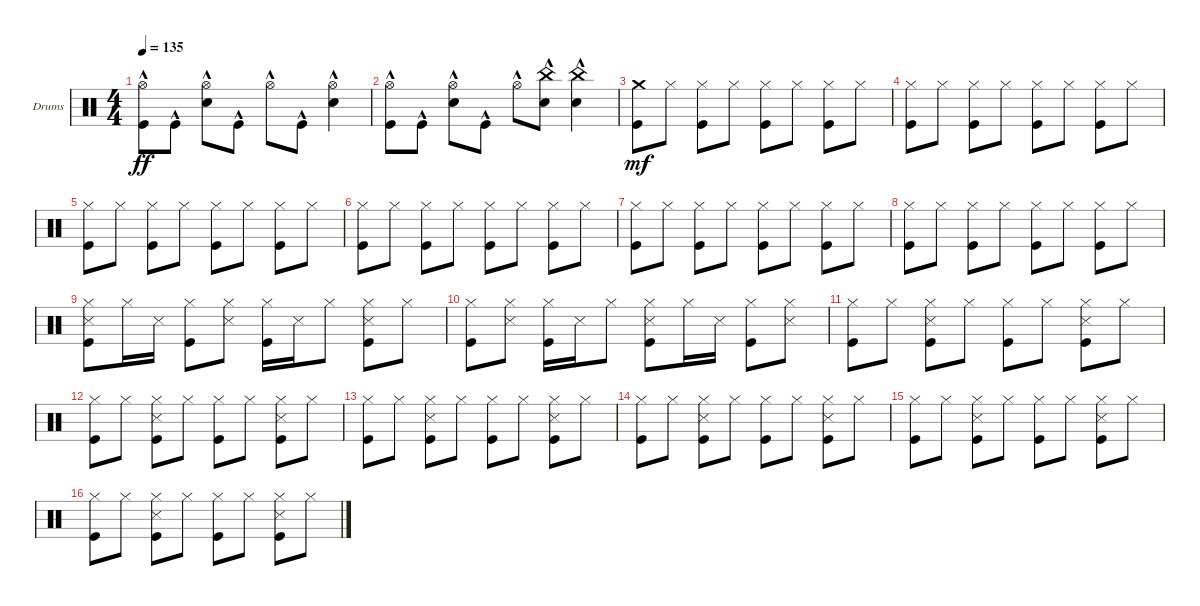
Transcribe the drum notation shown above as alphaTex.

\defaultSystemsLayout 4
\bracketExtendMode groupsimilarinstruments
\firstSystemTrackNameOrientation horizontal
\otherSystemsTrackNameOrientation horizontal
\track ("Drumkit" "Drums") {instrument percussion}
\staff {score}
\articulation defaults
\ts (4 4)
\tempo 135
\clef neutral
\ks c
("Kick (hit)"{hac} "Hi-Hat (open)"{hac}).8{dy ff} "Kick (hit)"{hac}.8 ("Snare (hit) 2"{hac} "Hi-Hat (open)"{hac}).8 "Kick (hit)"{hac}.8 "Hi-Hat (open)"{hac}.8 "Kick (hit)"{hac}.8 ("Snare (hit) 2"{hac} "Hi-Hat (open)"{hac}).4 |
("Kick (hit)"{hac} "Hi-Hat (open)"{hac}).8 "Kick (hit)"{hac}.8 ("Snare (hit) 2"{hac} "Hi-Hat (open)"{hac}).8 "Kick (hit)"{hac}.8 "Hi-Hat (open)"{hac}.8 ("Snare (hit) 2"{hac} "China (hit)"{hac}).8 ("Snare (hit) 2"{hac} "China (hit)"{hac}).4 |
("Kick (hit)" "Crash medium (hit)").8{dy mf} "Hi-Hat (closed)".8 ("Hi-Hat (closed)" "Kick (hit)").8 "Hi-Hat (closed)".8 ("Hi-Hat (closed)" "Kick (hit)").8 "Hi-Hat (closed)".8 ("Hi-Hat (closed)" "Kick (hit)").8 "Hi-Hat (closed)".8 |
("Hi-Hat (closed)" "Kick (hit)").8 "Hi-Hat (closed)".8 ("Kick (hit)" "Hi-Hat (closed)").8 "Hi-Hat (closed)".8 ("Kick (hit)" "Hi-Hat (closed)").8 "Hi-Hat (closed)".8 ("Kick (hit)" "Hi-Hat (closed)").8 "Hi-Hat (closed)".8 |
("Hi-Hat (closed)" "Kick (hit)").8 "Hi-Hat (closed)".8 ("Kick (hit)" "Hi-Hat (closed)").8 "Hi-Hat (closed)".8 ("Kick (hit)" "Hi-Hat (closed)").8 "Hi-Hat (closed)".8 ("Kick (hit)" "Hi-Hat (closed)").8 "Hi-Hat (closed)".8 |
("Hi-Hat (closed)" "Kick (hit)").8 "Hi-Hat (closed)".8 ("Kick (hit)" "Hi-Hat (closed)").8 "Hi-Hat (closed)".8 ("Kick (hit)" "Hi-Hat (closed)").8 "Hi-Hat (closed)".8 ("Kick (hit)" "Hi-Hat (closed)").8 "Hi-Hat (closed)".8 |
("Hi-Hat (closed)" "Kick (hit)").8 "Hi-Hat (closed)".8 ("Kick (hit)" "Hi-Hat (closed)").8 "Hi-Hat (closed)".8 ("Kick (hit)" "Hi-Hat (closed)").8 "Hi-Hat (closed)".8 ("Kick (hit)" "Hi-Hat (closed)").8 "Hi-Hat (closed)".8 |
("Hi-Hat (closed)" "Kick (hit)").8 "Hi-Hat (closed)".8 ("Kick (hit)" "Hi-Hat (closed)").8 "Hi-Hat (closed)".8 ("Kick (hit)" "Hi-Hat (closed)").8 "Hi-Hat (closed)".8 ("Kick (hit)" "Hi-Hat (closed)").8 "Hi-Hat (closed)".8 |
("Hi-Hat (closed)" "Kick (hit)" "Snare (side stick) 3").8 "Hi-Hat (closed)".16 "Snare (side stick) 3".16 ("Kick (hit)" "Hi-Hat (closed)").8 ("Hi-Hat (closed)" "Snare (side stick) 3").8 ("Kick (hit)" "Hi-Hat (closed)").16 "Snare (side stick) 3".16 "Hi-Hat (closed)".8 ("Kick (hit)" "Hi-Hat (closed)" "Snare (side stick) 3").8 "Hi-Hat (closed)".8 |
("Hi-Hat (closed)" "Kick (hit)").8 ("Hi-Hat (closed)" "Snare (side stick) 3").8 ("Kick (hit)" "Hi-Hat (closed)").16 "Snare (side stick) 3".16 "Hi-Hat (closed)".8 ("Kick (hit)" "Hi-Hat (closed)" "Snare (side stick) 3").8 "Hi-Hat (closed)".16 "Snare (side stick) 3".16 ("Kick (hit)" "Hi-Hat (closed)").8 ("Hi-Hat (closed)" "Snare (side stick) 3").8 |
("Hi-Hat (closed)" "Kick (hit)").8 "Hi-Hat (closed)".8 ("Kick (hit)" "Hi-Hat (closed)" "Snare (side stick) 3").8 "Hi-Hat (closed)".8 ("Kick (hit)" "Hi-Hat (closed)").8 "Hi-Hat (closed)".8 ("Kick (hit)" "Hi-Hat (closed)" "Snare (side stick) 3").8 "Hi-Hat (closed)".8 |
("Hi-Hat (closed)" "Kick (hit)").8 "Hi-Hat (closed)".8 ("Kick (hit)" "Hi-Hat (closed)" "Snare (side stick) 3").8 "Hi-Hat (closed)".8 ("Kick (hit)" "Hi-Hat (closed)").8 "Hi-Hat (closed)".8 ("Kick (hit)" "Hi-Hat (closed)" "Snare (side stick) 3").8 "Hi-Hat (closed)".8 |
("Hi-Hat (closed)" "Kick (hit)").8 "Hi-Hat (closed)".8 ("Kick (hit)" "Hi-Hat (closed)" "Snare (side stick) 3").8 "Hi-Hat (closed)".8 ("Kick (hit)" "Hi-Hat (closed)").8 "Hi-Hat (closed)".8 ("Kick (hit)" "Hi-Hat (closed)" "Snare (side stick) 3").8 "Hi-Hat (closed)".8 |
("Hi-Hat (closed)" "Kick (hit)").8 "Hi-Hat (closed)".8 ("Kick (hit)" "Hi-Hat (closed)" "Snare (side stick) 3").8 "Hi-Hat (closed)".8 ("Kick (hit)" "Hi-Hat (closed)").8 "Hi-Hat (closed)".8 ("Kick (hit)" "Hi-Hat (closed)" "Snare (side stick) 3").8 "Hi-Hat (closed)".8 |
("Hi-Hat (closed)" "Kick (hit)").8 "Hi-Hat (closed)".8 ("Kick (hit)" "Hi-Hat (closed)" "Snare (side stick) 3").8 "Hi-Hat (closed)".8 ("Kick (hit)" "Hi-Hat (closed)").8 "Hi-Hat (closed)".8 ("Kick (hit)" "Hi-Hat (closed)" "Snare (side stick) 3").8 "Hi-Hat (closed)".8 |
("Hi-Hat (closed)" "Kick (hit)").8 "Hi-Hat (closed)".8 ("Kick (hit)" "Hi-Hat (closed)" "Snare (side stick) 3").8 "Hi-Hat (closed)".8 ("Kick (hit)" "Hi-Hat (closed)").8 "Hi-Hat (closed)".8 ("Kick (hit)" "Hi-Hat (closed)" "Snare (side stick) 3").8 "Hi-Hat (closed)".8
